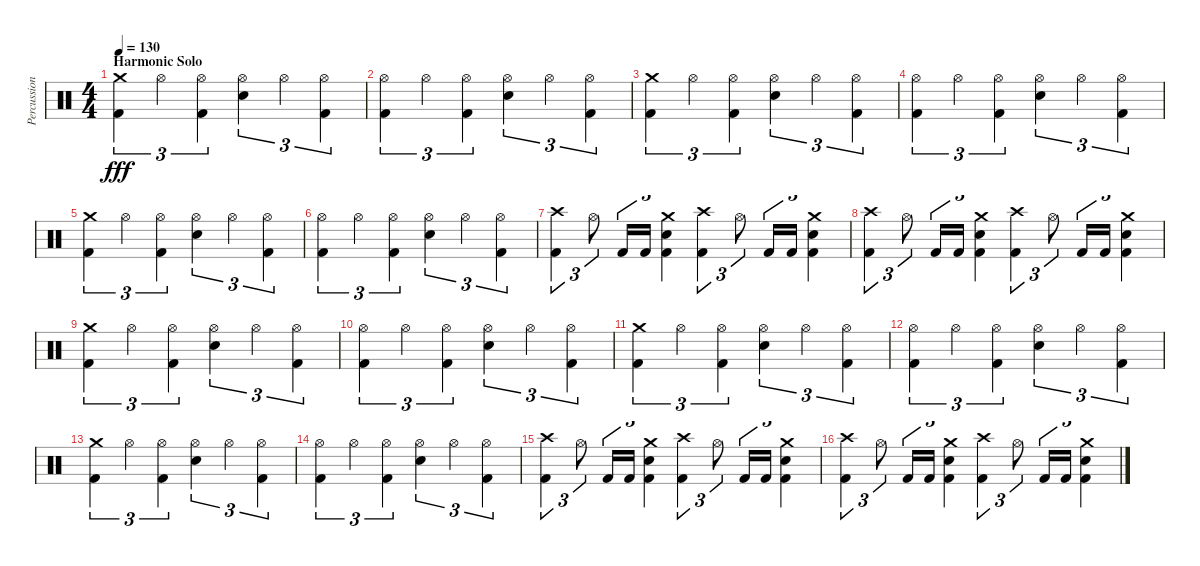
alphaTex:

\track ("Percussions" "Percussion") {instrument percussion}
\staff {score}
\articulation defaults
\ts (4 4)
\section ("" "Harmonic Solo")
\tempo 130
\clef neutral
\ks c
("Crash medium (hit)" "Kick (hit) 2").4{tu (3 2) dy fff} "Hi-Hat (open)".4{tu (3 2)} ("Hi-Hat (open)" "Kick (hit) 2").4{tu (3 2)} ("Hi-Hat (open)" "Snare (hit) 2").4{tu (3 2)} "Hi-Hat (open)".4{tu (3 2)} ("Hi-Hat (open)" "Kick (hit) 2").4{tu (3 2)} |
("Hi-Hat (open)" "Kick (hit) 2").4{tu (3 2)} "Hi-Hat (open)".4{tu (3 2)} ("Hi-Hat (open)" "Kick (hit) 2").4{tu (3 2)} ("Hi-Hat (open)" "Snare (hit) 2").4{tu (3 2)} "Hi-Hat (open)".4{tu (3 2)} ("Hi-Hat (open)" "Kick (hit) 2").4{tu (3 2)} |
("Crash medium (hit)" "Kick (hit) 2").4{tu (3 2)} "Hi-Hat (open)".4{tu (3 2)} ("Hi-Hat (open)" "Kick (hit) 2").4{tu (3 2)} ("Hi-Hat (open)" "Snare (hit) 2").4{tu (3 2)} "Hi-Hat (open)".4{tu (3 2)} ("Hi-Hat (open)" "Kick (hit) 2").4{tu (3 2)} |
("Hi-Hat (open)" "Kick (hit) 2").4{tu (3 2)} "Hi-Hat (open)".4{tu (3 2)} ("Hi-Hat (open)" "Kick (hit) 2").4{tu (3 2)} ("Hi-Hat (open)" "Snare (hit) 2").4{tu (3 2)} "Hi-Hat (open)".4{tu (3 2)} ("Hi-Hat (open)" "Kick (hit) 2").4{tu (3 2)} |
("Crash medium (hit)" "Kick (hit) 2").4{tu (3 2)} "Hi-Hat (open)".4{tu (3 2)} ("Hi-Hat (open)" "Kick (hit) 2").4{tu (3 2)} ("Hi-Hat (open)" "Snare (hit) 2").4{tu (3 2)} "Hi-Hat (open)".4{tu (3 2)} ("Hi-Hat (open)" "Kick (hit) 2").4{tu (3 2)} |
("Hi-Hat (open)" "Kick (hit) 2").4{tu (3 2)} "Hi-Hat (open)".4{tu (3 2)} ("Hi-Hat (open)" "Kick (hit) 2").4{tu (3 2)} ("Hi-Hat (open)" "Snare (hit) 2").4{tu (3 2)} "Hi-Hat (open)".4{tu (3 2)} ("Hi-Hat (open)" "Kick (hit) 2").4{tu (3 2)} |
("Crash high (hit)" "Kick (hit) 2").4{tu (3 2)} "Hi-Hat (open)".8{tu (3 2)} "Kick (hit) 2".16{tu (3 2)} "Kick (hit) 2".16{tu (3 2)} ("Crash medium (hit)" "Snare (hit) 2" "Kick (hit) 2").4{tu (3 2)} ("Crash high (hit)" "Kick (hit) 2").4{tu (3 2)} "Hi-Hat (open)".8{tu (3 2)} "Kick (hit) 2".16{tu (3 2)} "Kick (hit) 2".16{tu (3 2)} ("Crash medium (hit)" "Snare (hit) 2" "Kick (hit) 2").4{tu (3 2)} |
("Crash high (hit)" "Kick (hit) 2").4{tu (3 2)} "Hi-Hat (open)".8{tu (3 2)} "Kick (hit) 2".16{tu (3 2)} "Kick (hit) 2".16{tu (3 2)} ("Crash medium (hit)" "Snare (hit) 2" "Kick (hit) 2").4{tu (3 2)} ("Crash high (hit)" "Kick (hit) 2").4{tu (3 2)} "Hi-Hat (open)".8{tu (3 2)} "Kick (hit) 2".16{tu (3 2)} "Kick (hit) 2".16{tu (3 2)} ("Crash medium (hit)" "Snare (hit) 2" "Kick (hit) 2").4{tu (3 2)} |
("Crash medium (hit)" "Kick (hit) 2").4{tu (3 2)} "Hi-Hat (open)".4{tu (3 2)} ("Hi-Hat (open)" "Kick (hit) 2").4{tu (3 2)} ("Hi-Hat (open)" "Snare (hit) 2").4{tu (3 2)} "Hi-Hat (open)".4{tu (3 2)} ("Hi-Hat (open)" "Kick (hit) 2").4{tu (3 2)} |
("Hi-Hat (open)" "Kick (hit) 2").4{tu (3 2)} "Hi-Hat (open)".4{tu (3 2)} ("Hi-Hat (open)" "Kick (hit) 2").4{tu (3 2)} ("Hi-Hat (open)" "Snare (hit) 2").4{tu (3 2)} "Hi-Hat (open)".4{tu (3 2)} ("Hi-Hat (open)" "Kick (hit) 2").4{tu (3 2)} |
("Crash medium (hit)" "Kick (hit) 2").4{tu (3 2)} "Hi-Hat (open)".4{tu (3 2)} ("Hi-Hat (open)" "Kick (hit) 2").4{tu (3 2)} ("Hi-Hat (open)" "Snare (hit) 2").4{tu (3 2)} "Hi-Hat (open)".4{tu (3 2)} ("Hi-Hat (open)" "Kick (hit) 2").4{tu (3 2)} |
("Hi-Hat (open)" "Kick (hit) 2").4{tu (3 2)} "Hi-Hat (open)".4{tu (3 2)} ("Hi-Hat (open)" "Kick (hit) 2").4{tu (3 2)} ("Hi-Hat (open)" "Snare (hit) 2").4{tu (3 2)} "Hi-Hat (open)".4{tu (3 2)} ("Hi-Hat (open)" "Kick (hit) 2").4{tu (3 2)} |
("Crash medium (hit)" "Kick (hit) 2").4{tu (3 2)} "Hi-Hat (open)".4{tu (3 2)} ("Hi-Hat (open)" "Kick (hit) 2").4{tu (3 2)} ("Hi-Hat (open)" "Snare (hit) 2").4{tu (3 2)} "Hi-Hat (open)".4{tu (3 2)} ("Hi-Hat (open)" "Kick (hit) 2").4{tu (3 2)} |
("Hi-Hat (open)" "Kick (hit) 2").4{tu (3 2)} "Hi-Hat (open)".4{tu (3 2)} ("Hi-Hat (open)" "Kick (hit) 2").4{tu (3 2)} ("Hi-Hat (open)" "Snare (hit) 2").4{tu (3 2)} "Hi-Hat (open)".4{tu (3 2)} ("Hi-Hat (open)" "Kick (hit) 2").4{tu (3 2)} |
("Crash high (hit)" "Kick (hit) 2").4{tu (3 2)} "Hi-Hat (open)".8{tu (3 2)} "Kick (hit) 2".16{tu (3 2)} "Kick (hit) 2".16{tu (3 2)} ("Crash medium (hit)" "Snare (hit) 2" "Kick (hit) 2").4{tu (3 2)} ("Crash high (hit)" "Kick (hit) 2").4{tu (3 2)} "Hi-Hat (open)".8{tu (3 2)} "Kick (hit) 2".16{tu (3 2)} "Kick (hit) 2".16{tu (3 2)} ("Crash medium (hit)" "Snare (hit) 2" "Kick (hit) 2").4{tu (3 2)} |
("Crash high (hit)" "Kick (hit) 2").4{tu (3 2)} "Hi-Hat (open)".8{tu (3 2)} "Kick (hit) 2".16{tu (3 2)} "Kick (hit) 2".16{tu (3 2)} ("Crash medium (hit)" "Snare (hit) 2" "Kick (hit) 2").4{tu (3 2)} ("Crash high (hit)" "Kick (hit) 2").4{tu (3 2)} "Hi-Hat (open)".8{tu (3 2)} "Kick (hit) 2".16{tu (3 2)} "Kick (hit) 2".16{tu (3 2)} ("Crash medium (hit)" "Snare (hit) 2" "Kick (hit) 2").4{tu (3 2)}
